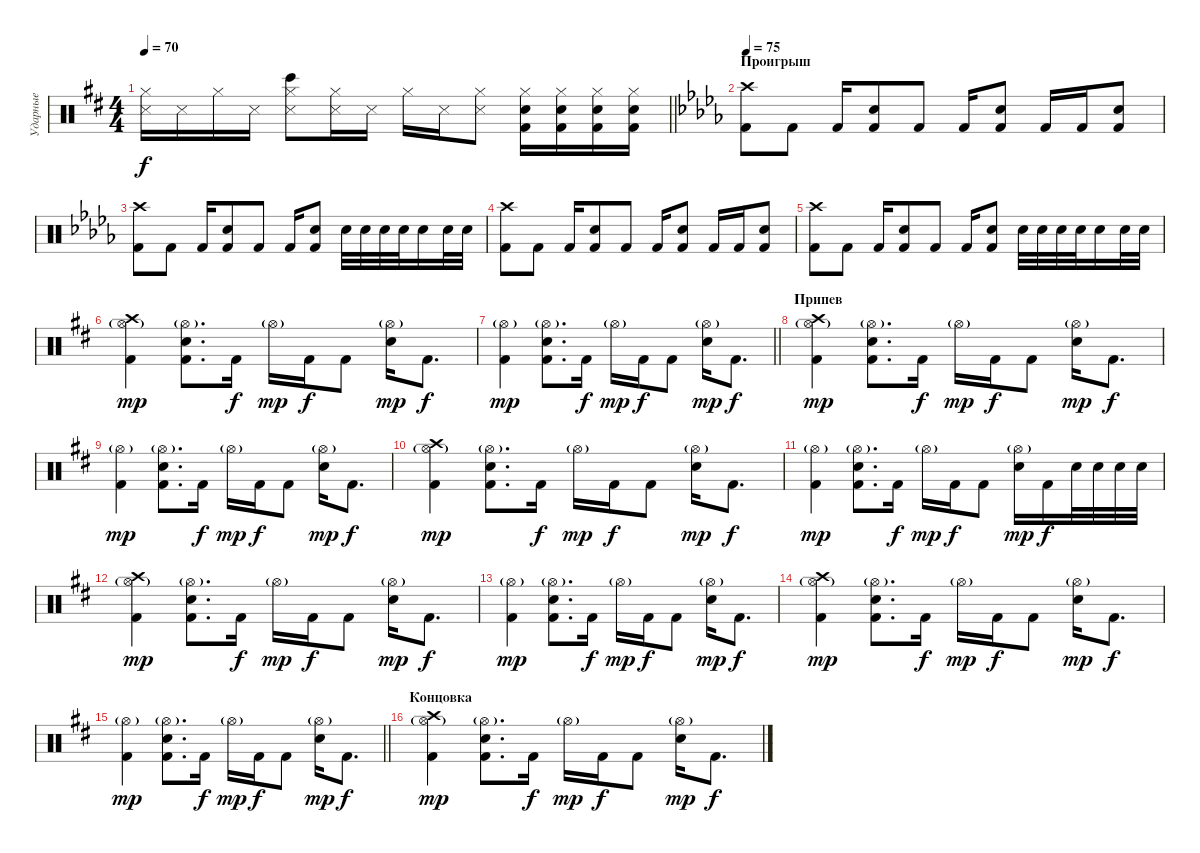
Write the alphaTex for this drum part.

\track ("Ударные" "Ударные") {instrument percussion}
\staff {score}
\articulation defaults
\ts (4 4)
\tempo 70
\clef neutral
\barLineRight lightlight
\ks bminor
("Hi-Hat (closed)" "Snare (side stick) 3").16{dy f} "Snare (side stick) 3".16 "Hi-Hat (closed)".16 "Snare (side stick) 3".16 ("Hi-Hat (closed)" "Bongo High (hit)" "Snare (side stick) 3").8 ("Hi-Hat (closed)" "Snare (side stick) 3").16 "Snare (side stick) 3".16 "Hi-Hat (closed)".16 "Snare (side stick) 3".16 ("Hi-Hat (closed)" "Snare (side stick) 3").8 ("Hi-Hat (closed)" "Electric Snare (hit)" "Kick (hit) 2").16 ("Hi-Hat (closed)" "Electric Snare (hit)" "Kick (hit) 2").16 ("Hi-Hat (closed)" "Electric Snare (hit)" "Kick (hit) 2").16 ("Hi-Hat (closed)" "Electric Snare (hit)" "Kick (hit) 2").16 |
\section ("" "Проигрыш")
\tempo 75
\ks bbminor
("Crash high (hit)" "Kick (hit) 2").8 "Kick (hit) 2".8 "Kick (hit) 2".16 ("Electric Snare (hit)" "Kick (hit) 2").8 "Kick (hit) 2".8 "Kick (hit) 2".16 ("Electric Snare (hit)" "Kick (hit) 2").8 "Kick (hit) 2".16 "Kick (hit) 2".16 ("Electric Snare (hit)" "Kick (hit) 2").8 |
("Crash high (hit)" "Kick (hit) 2").8 "Kick (hit) 2".8 "Kick (hit) 2".16 ("Electric Snare (hit)" "Kick (hit) 2").8 "Kick (hit) 2".8 "Kick (hit) 2".16 ("Electric Snare (hit)" "Kick (hit) 2").8 "Electric Snare (hit)".32 "Electric Snare (hit)".32 "Electric Snare (hit)".32 "Electric Snare (hit)".32 "Electric Snare (hit)".16 "Electric Snare (hit)".32 "Electric Snare (hit)".32 |
("Crash high (hit)" "Kick (hit) 2").8 "Kick (hit) 2".8 "Kick (hit) 2".16 ("Electric Snare (hit)" "Kick (hit) 2").8 "Kick (hit) 2".8 "Kick (hit) 2".16 ("Electric Snare (hit)" "Kick (hit) 2").8 "Kick (hit) 2".16 "Kick (hit) 2".16 ("Electric Snare (hit)" "Kick (hit) 2").8 |
("Crash high (hit)" "Kick (hit) 2").8 "Kick (hit) 2".8 "Kick (hit) 2".16 ("Electric Snare (hit)" "Kick (hit) 2").8 "Kick (hit) 2".8 "Kick (hit) 2".16 ("Electric Snare (hit)" "Kick (hit) 2").8 "Electric Snare (hit)".32 "Electric Snare (hit)".32 "Electric Snare (hit)".32 "Electric Snare (hit)".32 "Electric Snare (hit)".16 "Electric Snare (hit)".32 "Electric Snare (hit)".32 |
\ks bminor
("Crash high (hit)" "Hi-Hat (open)"{g} "Kick (hit) 2").4{dy mp} ("Hi-Hat (open)"{g} "Electric Snare (hit)" "Kick (hit) 2").8{d} "Kick (hit) 2".16{dy f} "Hi-Hat (open)"{g}.16{dy mp} "Kick (hit) 2".16{dy f} "Kick (hit) 2".8 ("Hi-Hat (open)"{g} "Electric Snare (hit)").16{dy mp} "Kick (hit) 2".8{d dy f} |
\barLineRight lightlight
("Hi-Hat (open)"{g} "Kick (hit) 2").4{dy mp} ("Hi-Hat (open)"{g} "Electric Snare (hit)" "Kick (hit) 2").8{d} "Kick (hit) 2".16{dy f} "Hi-Hat (open)"{g}.16{dy mp} "Kick (hit) 2".16{dy f} "Kick (hit) 2".8 ("Hi-Hat (open)"{g} "Electric Snare (hit)").16{dy mp} "Kick (hit) 2".8{d dy f} |
\section ("" "Припев")
("Crash high (hit)" "Hi-Hat (open)"{g} "Kick (hit) 2").4{dy mp} ("Hi-Hat (open)"{g} "Electric Snare (hit)" "Kick (hit) 2").8{d} "Kick (hit) 2".16{dy f} "Hi-Hat (open)"{g}.16{dy mp} "Kick (hit) 2".16{dy f} "Kick (hit) 2".8 ("Hi-Hat (open)"{g} "Electric Snare (hit)").16{dy mp} "Kick (hit) 2".8{d dy f} |
("Hi-Hat (open)"{g} "Kick (hit) 2").4{dy mp} ("Hi-Hat (open)"{g} "Electric Snare (hit)" "Kick (hit) 2").8{d} "Kick (hit) 2".16{dy f} "Hi-Hat (open)"{g}.16{dy mp} "Kick (hit) 2".16{dy f} "Kick (hit) 2".8 ("Hi-Hat (open)"{g} "Electric Snare (hit)").16{dy mp} "Kick (hit) 2".8{d dy f} |
("Crash high (hit)" "Hi-Hat (open)"{g} "Kick (hit) 2").4{dy mp} ("Hi-Hat (open)"{g} "Electric Snare (hit)" "Kick (hit) 2").8{d} "Kick (hit) 2".16{dy f} "Hi-Hat (open)"{g}.16{dy mp} "Kick (hit) 2".16{dy f} "Kick (hit) 2".8 ("Hi-Hat (open)"{g} "Electric Snare (hit)").16{dy mp} "Kick (hit) 2".8{d dy f} |
("Hi-Hat (open)"{g} "Kick (hit) 2").4{dy mp} ("Hi-Hat (open)"{g} "Electric Snare (hit)" "Kick (hit) 2").8{d} "Kick (hit) 2".16{dy f} "Hi-Hat (open)"{g}.16{dy mp} "Kick (hit) 2".16{dy f} "Kick (hit) 2".8 ("Hi-Hat (open)"{g} "Electric Snare (hit)").16{dy mp} "Kick (hit) 2".16{dy f} "Electric Snare (hit)".32 "Electric Snare (hit)".32 "Electric Snare (hit)".32 "Electric Snare (hit)".32 |
("Crash high (hit)" "Hi-Hat (open)"{g} "Kick (hit) 2").4{dy mp} ("Hi-Hat (open)"{g} "Electric Snare (hit)" "Kick (hit) 2").8{d} "Kick (hit) 2".16{dy f} "Hi-Hat (open)"{g}.16{dy mp} "Kick (hit) 2".16{dy f} "Kick (hit) 2".8 ("Hi-Hat (open)"{g} "Electric Snare (hit)").16{dy mp} "Kick (hit) 2".8{d dy f} |
("Hi-Hat (open)"{g} "Kick (hit) 2").4{dy mp} ("Hi-Hat (open)"{g} "Electric Snare (hit)" "Kick (hit) 2").8{d} "Kick (hit) 2".16{dy f} "Hi-Hat (open)"{g}.16{dy mp} "Kick (hit) 2".16{dy f} "Kick (hit) 2".8 ("Hi-Hat (open)"{g} "Electric Snare (hit)").16{dy mp} "Kick (hit) 2".8{d dy f} |
("Crash high (hit)" "Hi-Hat (open)"{g} "Kick (hit) 2").4{dy mp} ("Hi-Hat (open)"{g} "Electric Snare (hit)" "Kick (hit) 2").8{d} "Kick (hit) 2".16{dy f} "Hi-Hat (open)"{g}.16{dy mp} "Kick (hit) 2".16{dy f} "Kick (hit) 2".8 ("Hi-Hat (open)"{g} "Electric Snare (hit)").16{dy mp} "Kick (hit) 2".8{d dy f} |
\barLineRight lightlight
("Hi-Hat (open)"{g} "Kick (hit) 2").4{dy mp} ("Hi-Hat (open)"{g} "Electric Snare (hit)" "Kick (hit) 2").8{d} "Kick (hit) 2".16{dy f} "Hi-Hat (open)"{g}.16{dy mp} "Kick (hit) 2".16{dy f} "Kick (hit) 2".8 ("Hi-Hat (open)"{g} "Electric Snare (hit)").16{dy mp} "Kick (hit) 2".8{d dy f} |
\section ("" "Концовка")
("Crash high (hit)" "Hi-Hat (open)"{g} "Kick (hit) 2").4{dy mp} ("Hi-Hat (open)"{g} "Electric Snare (hit)" "Kick (hit) 2").8{d} "Kick (hit) 2".16{dy f} "Hi-Hat (open)"{g}.16{dy mp} "Kick (hit) 2".16{dy f} "Kick (hit) 2".8 ("Hi-Hat (open)"{g} "Electric Snare (hit)").16{dy mp} "Kick (hit) 2".8{d dy f}
